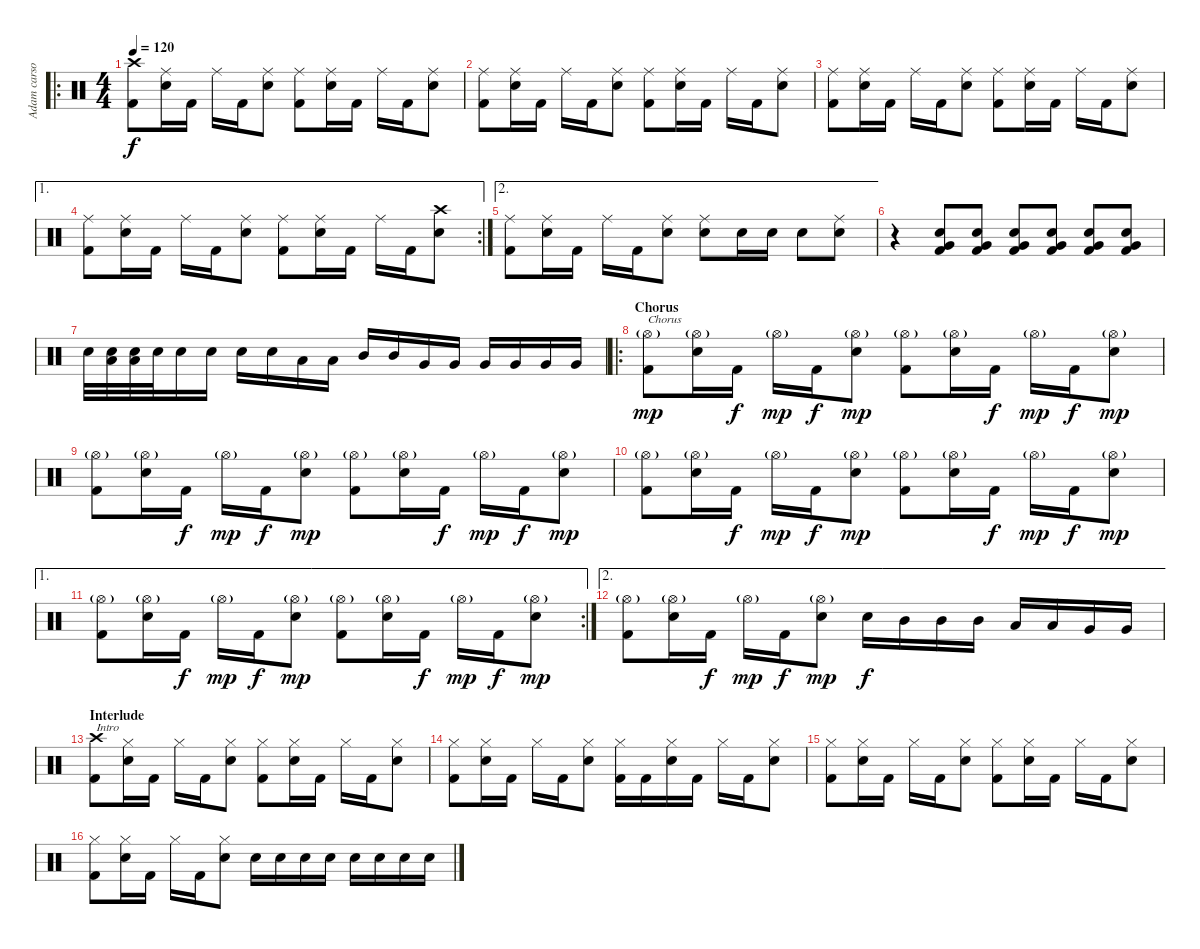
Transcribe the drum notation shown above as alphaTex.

\track ("Adam carson" "Adam carso") {instrument percussion}
\staff {score}
\articulation defaults
\ro
\ts (4 4)
\tempo 120
\clef neutral
\ks c
("Kick (hit) 2" "Crash high (hit)").8{dy f} ("Ride (middle)" "Snare (hit) 2").16 "Kick (hit) 2".16 "Ride (middle)".16 "Kick (hit) 2".16 ("Ride (middle)" "Snare (hit) 2").8 ("Kick (hit) 2" "Ride (middle)").8 ("Ride (middle)" "Snare (hit) 2").16 "Kick (hit) 2".16 "Ride (middle)".16 "Kick (hit) 2".16 ("Ride (middle)" "Snare (hit) 2").8 |
("Kick (hit) 2" "Ride (middle)").8 ("Ride (middle)" "Snare (hit) 2").16 "Kick (hit) 2".16 "Ride (middle)".16 "Kick (hit) 2".16 ("Ride (middle)" "Snare (hit) 2").8 ("Kick (hit) 2" "Ride (middle)").8 ("Ride (middle)" "Snare (hit) 2").16 "Kick (hit) 2".16 "Ride (middle)".16 "Kick (hit) 2".16 ("Ride (middle)" "Snare (hit) 2").8 |
("Kick (hit) 2" "Ride (middle)").8 ("Ride (middle)" "Snare (hit) 2").16 "Kick (hit) 2".16 "Ride (middle)".16 "Kick (hit) 2".16 ("Ride (middle)" "Snare (hit) 2").8 ("Kick (hit) 2" "Ride (middle)").8 ("Ride (middle)" "Snare (hit) 2").16 "Kick (hit) 2".16 "Ride (middle)".16 "Kick (hit) 2".16 ("Ride (middle)" "Snare (hit) 2").8 |
\ae 1
\rc 2
("Kick (hit) 2" "Ride (middle)").8 ("Ride (middle)" "Snare (hit) 2").16 "Kick (hit) 2".16 "Ride (middle)".16 "Kick (hit) 2".16 ("Ride (middle)" "Snare (hit) 2").8 ("Kick (hit) 2" "Ride (middle)").8 ("Ride (middle)" "Snare (hit) 2").16 "Kick (hit) 2".16 "Ride (middle)".16 "Kick (hit) 2".16 ("Crash high (hit)" "Snare (hit) 2").8 |
\ae 2
("Kick (hit) 2" "Ride (middle)").8 ("Ride (middle)" "Snare (hit) 2").16 "Kick (hit) 2".16 "Ride (middle)".16 "Kick (hit) 2".16 ("Ride (middle)" "Snare (hit) 2").8 ("Ride (middle)" "Snare (hit) 2").8 "Snare (hit) 2".16 "Snare (hit) 2".16 "Snare (hit) 2".8 ("Ride (middle)" "Snare (hit) 2").8 |
r.4{volume 13} ("Kick (hit) 2" "Snare (hit) 2" "Very Low Tom (hit)").8{volume 16} ("Kick (hit) 2" "Snare (hit) 2" "Very Low Tom (hit)").8 ("Kick (hit) 2" "Snare (hit) 2" "Very Low Tom (hit)").8 ("Kick (hit) 2" "Snare (hit) 2" "Very Low Tom (hit)").8 ("Kick (hit) 2" "Snare (hit) 2" "Very Low Tom (hit)").8 ("Kick (hit) 2" "Snare (hit) 2" "Very Low Tom (hit)").8 |
"Snare (hit) 2".32 ("Snare (hit) 2" "Low Tom (hit)").32 ("Snare (hit) 2" "Low Tom (hit)").32 "Snare (hit) 2".32 "Snare (hit) 2".16 "Snare (hit) 2".16 "Snare (hit) 2".16 "Snare (hit) 2".16 "Low Tom (hit)".16 "Low Tom (hit)".16 "Mid Tom (hit)".16 "Mid Tom (hit)".16 "Very Low Tom (hit)".16 "Very Low Tom (hit)".16 "Very Low Tom (hit)".16 "Very Low Tom (hit)".16 "Very Low Tom (hit)".16 "Very Low Tom (hit)".16 |
\ro
\section ("" "Chorus")
("Kick (hit) 2" "Hi-Hat (open)"{g}).8{txt "Chorus" dy mp} ("Hi-Hat (open)"{g} "Snare (hit) 2").16 "Kick (hit) 2".16{dy f} "Hi-Hat (open)"{g}.16{dy mp} "Kick (hit) 2".16{dy f} ("Hi-Hat (open)"{g} "Snare (hit) 2").8{dy mp} ("Kick (hit) 2" "Hi-Hat (open)"{g}).8 ("Hi-Hat (open)"{g} "Snare (hit) 2").16 "Kick (hit) 2".16{dy f} "Hi-Hat (open)"{g}.16{dy mp} "Kick (hit) 2".16{dy f} ("Hi-Hat (open)"{g} "Snare (hit) 2").8{dy mp} |
("Kick (hit) 2" "Hi-Hat (open)"{g}).8 ("Hi-Hat (open)"{g} "Snare (hit) 2").16 "Kick (hit) 2".16{dy f} "Hi-Hat (open)"{g}.16{dy mp} "Kick (hit) 2".16{dy f} ("Hi-Hat (open)"{g} "Snare (hit) 2").8{dy mp} ("Kick (hit) 2" "Hi-Hat (open)"{g}).8 ("Hi-Hat (open)"{g} "Snare (hit) 2").16 "Kick (hit) 2".16{dy f} "Hi-Hat (open)"{g}.16{dy mp} "Kick (hit) 2".16{dy f} ("Hi-Hat (open)"{g} "Snare (hit) 2").8{dy mp} |
("Kick (hit) 2" "Hi-Hat (open)"{g}).8 ("Hi-Hat (open)"{g} "Snare (hit) 2").16 "Kick (hit) 2".16{dy f} "Hi-Hat (open)"{g}.16{dy mp} "Kick (hit) 2".16{dy f} ("Hi-Hat (open)"{g} "Snare (hit) 2").8{dy mp} ("Kick (hit) 2" "Hi-Hat (open)"{g}).8 ("Hi-Hat (open)"{g} "Snare (hit) 2").16 "Kick (hit) 2".16{dy f} "Hi-Hat (open)"{g}.16{dy mp} "Kick (hit) 2".16{dy f} ("Hi-Hat (open)"{g} "Snare (hit) 2").8{dy mp} |
\ae 1
\rc 2
("Kick (hit) 2" "Hi-Hat (open)"{g}).8 ("Hi-Hat (open)"{g} "Snare (hit) 2").16 "Kick (hit) 2".16{dy f} "Hi-Hat (open)"{g}.16{dy mp} "Kick (hit) 2".16{dy f} ("Hi-Hat (open)"{g} "Snare (hit) 2").8{dy mp} ("Kick (hit) 2" "Hi-Hat (open)"{g}).8 ("Hi-Hat (open)"{g} "Snare (hit) 2").16 "Kick (hit) 2".16{dy f} "Hi-Hat (open)"{g}.16{dy mp} "Kick (hit) 2".16{dy f} ("Hi-Hat (open)"{g} "Snare (hit) 2").8{dy mp} |
\ae 2
("Kick (hit) 2" "Hi-Hat (open)"{g}).8 ("Hi-Hat (open)"{g} "Snare (hit) 2").16 "Kick (hit) 2".16{dy f} "Hi-Hat (open)"{g}.16{dy mp} "Kick (hit) 2".16{dy f} ("Hi-Hat (open)"{g} "Snare (hit) 2").8{dy mp} "Snare (hit) 2".16{dy f} "Mid Tom (hit)".16 "Mid Tom (hit)".16 "Mid Tom (hit)".16 "Low Tom (hit)".16 "Low Tom (hit)".16 "Very Low Tom (hit)".16 "Very Low Tom (hit)".16 |
\section ("" "Interlude")
("Kick (hit) 2" "Crash high (hit)").8{txt "Intro"} ("Snare (hit) 2" "Hi-Hat (closed)").16 "Kick (hit) 2".16 "Hi-Hat (closed)".16 "Kick (hit) 2".16 ("Snare (hit) 2" "Hi-Hat (closed)").8 ("Kick (hit) 2" "Hi-Hat (closed)").8 ("Snare (hit) 2" "Hi-Hat (closed)").16 "Kick (hit) 2".16 "Hi-Hat (closed)".16 "Kick (hit) 2".16 ("Snare (hit) 2" "Hi-Hat (closed)").8 |
("Kick (hit) 2" "Hi-Hat (closed)").8 ("Snare (hit) 2" "Hi-Hat (closed)").16 "Kick (hit) 2".16 "Hi-Hat (closed)".16 "Kick (hit) 2".16 ("Snare (hit) 2" "Hi-Hat (closed)").8 ("Kick (hit) 2" "Hi-Hat (closed)").16 "Kick (hit) 2".16 ("Snare (hit) 2" "Hi-Hat (closed)").16 "Kick (hit) 2".16 "Hi-Hat (closed)".16 "Kick (hit) 2".16 ("Snare (hit) 2" "Hi-Hat (closed)").8 |
("Kick (hit) 2" "Hi-Hat (closed)").8 ("Snare (hit) 2" "Hi-Hat (closed)").16 "Kick (hit) 2".16 "Hi-Hat (closed)".16 "Kick (hit) 2".16 ("Snare (hit) 2" "Hi-Hat (closed)").8 ("Kick (hit) 2" "Hi-Hat (closed)").8 ("Snare (hit) 2" "Hi-Hat (closed)").16 "Kick (hit) 2".16 "Hi-Hat (closed)".16 "Kick (hit) 2".16 ("Snare (hit) 2" "Hi-Hat (closed)").8 |
("Kick (hit) 2" "Hi-Hat (closed)").8 ("Snare (hit) 2" "Hi-Hat (closed)").16 "Kick (hit) 2".16 "Hi-Hat (closed)".16 "Kick (hit) 2".16 ("Snare (hit) 2" "Hi-Hat (closed)").8 "Snare (hit) 2".16 "Snare (hit) 2".16 "Snare (hit) 2".16 "Snare (hit) 2".16 "Snare (hit) 2".16 "Snare (hit) 2".16 "Snare (hit) 2".16 "Snare (hit) 2".16
